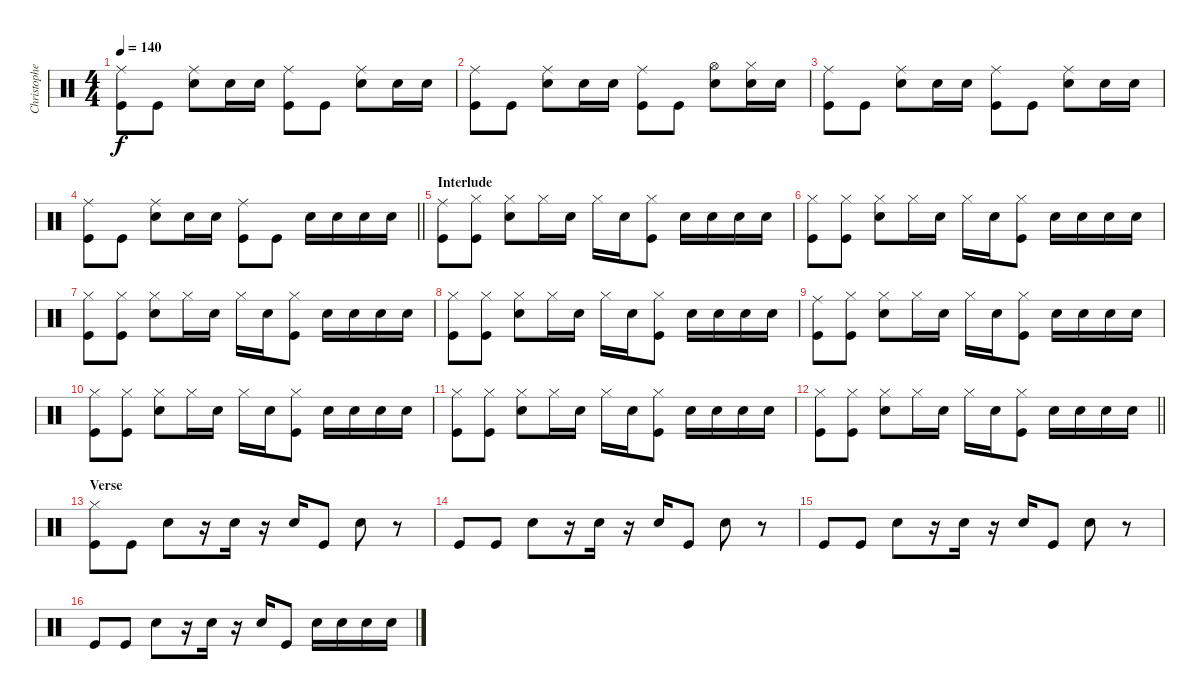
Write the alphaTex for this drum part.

\track ("Christopher - Drums" "Christophe") {instrument percussion}
\staff {score}
\articulation defaults
\ts (4 4)
\tempo 140
\clef neutral
\ks c
("Ride (middle)" "Kick (hit)").8{dy f} "Kick (hit)".8 ("Ride (middle)" "Snare (hit) 2").8 "Snare (hit) 2".16 "Snare (hit) 2".16 ("Ride (middle)" "Kick (hit)").8 "Kick (hit)".8 ("Ride (middle)" "Snare (hit) 2").8 "Snare (hit) 2".16 "Snare (hit) 2".16 |
("Ride (middle)" "Kick (hit)").8 "Kick (hit)".8 ("Ride (middle)" "Snare (hit) 2").8 "Snare (hit) 2".16 "Snare (hit) 2".16 ("Ride (middle)" "Kick (hit)").8 "Kick (hit)".8 ("Hi-Hat (open)" "Snare (hit) 2").8 ("Hi-Hat (closed)" "Snare (hit) 2").16 "Snare (hit) 2".16 |
("Ride (middle)" "Kick (hit)").8 "Kick (hit)".8 ("Ride (middle)" "Snare (hit) 2").8 "Snare (hit) 2".16 "Snare (hit) 2".16 ("Ride (middle)" "Kick (hit)").8 "Kick (hit)".8 ("Ride (middle)" "Snare (hit) 2").8 "Snare (hit) 2".16 "Snare (hit) 2".16 |
\barLineRight lightlight
("Ride (middle)" "Kick (hit)").8 "Kick (hit)".8 ("Ride (middle)" "Snare (hit) 2").8 "Snare (hit) 2".16 "Snare (hit) 2".16 ("Ride (middle)" "Kick (hit)").8 "Kick (hit)".8 "Snare (hit) 2".16 "Snare (hit) 2".16 "Snare (hit) 2".16 "Snare (hit) 2".16 |
\section ("" "Interlude")
("Ride (middle)" "Kick (hit)").8 ("Hi-Hat (closed)" "Kick (hit)").8 ("Hi-Hat (closed)" "Snare (hit) 2").8 "Hi-Hat (closed)".16 "Snare (hit) 2".16 "Hi-Hat (closed)".16 "Snare (hit) 2".16 ("Hi-Hat (closed)" "Kick (hit)").8 "Snare (hit) 2".16 "Snare (hit) 2".16 "Snare (hit) 2".16 "Snare (hit) 2".16 |
("Hi-Hat (closed)" "Kick (hit)").8 ("Hi-Hat (closed)" "Kick (hit)").8 ("Hi-Hat (closed)" "Snare (hit) 2").8 "Hi-Hat (closed)".16 "Snare (hit) 2".16 "Hi-Hat (closed)".16 "Snare (hit) 2".16 ("Hi-Hat (closed)" "Kick (hit)").8 "Snare (hit) 2".16 "Snare (hit) 2".16 "Snare (hit) 2".16 "Snare (hit) 2".16 |
("Hi-Hat (closed)" "Kick (hit)").8 ("Hi-Hat (closed)" "Kick (hit)").8 ("Hi-Hat (closed)" "Snare (hit) 2").8 "Hi-Hat (closed)".16 "Snare (hit) 2".16 "Hi-Hat (closed)".16 "Snare (hit) 2".16 ("Hi-Hat (closed)" "Kick (hit)").8 "Snare (hit) 2".16 "Snare (hit) 2".16 "Snare (hit) 2".16 "Snare (hit) 2".16 |
("Hi-Hat (closed)" "Kick (hit)").8 ("Hi-Hat (closed)" "Kick (hit)").8 ("Hi-Hat (closed)" "Snare (hit) 2").8 "Hi-Hat (closed)".16 "Snare (hit) 2".16 "Hi-Hat (closed)".16 "Snare (hit) 2".16 ("Hi-Hat (closed)" "Kick (hit)").8 "Snare (hit) 2".16 "Snare (hit) 2".16 "Snare (hit) 2".16 "Snare (hit) 2".16 |
("Ride (middle)" "Kick (hit)").8 ("Hi-Hat (closed)" "Kick (hit)").8 ("Hi-Hat (closed)" "Snare (hit) 2").8 "Hi-Hat (closed)".16 "Snare (hit) 2".16 "Hi-Hat (closed)".16 "Snare (hit) 2".16 ("Hi-Hat (closed)" "Kick (hit)").8 "Snare (hit) 2".16 "Snare (hit) 2".16 "Snare (hit) 2".16 "Snare (hit) 2".16 |
("Hi-Hat (closed)" "Kick (hit)").8 ("Hi-Hat (closed)" "Kick (hit)").8 ("Hi-Hat (closed)" "Snare (hit) 2").8 "Hi-Hat (closed)".16 "Snare (hit) 2".16 "Hi-Hat (closed)".16 "Snare (hit) 2".16 ("Hi-Hat (closed)" "Kick (hit)").8 "Snare (hit) 2".16 "Snare (hit) 2".16 "Snare (hit) 2".16 "Snare (hit) 2".16 |
("Hi-Hat (closed)" "Kick (hit)").8 ("Hi-Hat (closed)" "Kick (hit)").8 ("Hi-Hat (closed)" "Snare (hit) 2").8 "Hi-Hat (closed)".16 "Snare (hit) 2".16 "Hi-Hat (closed)".16 "Snare (hit) 2".16 ("Hi-Hat (closed)" "Kick (hit)").8 "Snare (hit) 2".16 "Snare (hit) 2".16 "Snare (hit) 2".16 "Snare (hit) 2".16 |
\barLineRight lightlight
("Hi-Hat (closed)" "Kick (hit)").8 ("Hi-Hat (closed)" "Kick (hit)").8 ("Hi-Hat (closed)" "Snare (hit) 2").8 "Hi-Hat (closed)".16 "Snare (hit) 2".16 "Hi-Hat (closed)".16 "Snare (hit) 2".16 ("Hi-Hat (closed)" "Kick (hit)").8 "Snare (hit) 2".16 "Snare (hit) 2".16 "Snare (hit) 2".16 "Snare (hit) 2".16 |
\section ("" "Verse")
("Hi-Hat (closed)" "Kick (hit)").8 "Kick (hit)".8 "Snare (hit) 2".8 r.16 "Snare (hit) 2".16 r.16 "Snare (hit) 2".16 "Kick (hit)".8 "Snare (hit) 2".8 r.8 |
"Kick (hit)".8 "Kick (hit)".8 "Snare (hit) 2".8 r.16 "Snare (hit) 2".16 r.16 "Snare (hit) 2".16 "Kick (hit)".8 "Snare (hit) 2".8 r.8 |
"Kick (hit)".8 "Kick (hit)".8 "Snare (hit) 2".8 r.16 "Snare (hit) 2".16 r.16 "Snare (hit) 2".16 "Kick (hit)".8 "Snare (hit) 2".8 r.8 |
"Kick (hit)".8 "Kick (hit)".8 "Snare (hit) 2".8 r.16 "Snare (hit) 2".16 r.16 "Snare (hit) 2".16 "Kick (hit)".8 "Snare (hit) 2".16 "Snare (hit) 2".16 "Snare (hit) 2".16 "Snare (hit) 2".16
